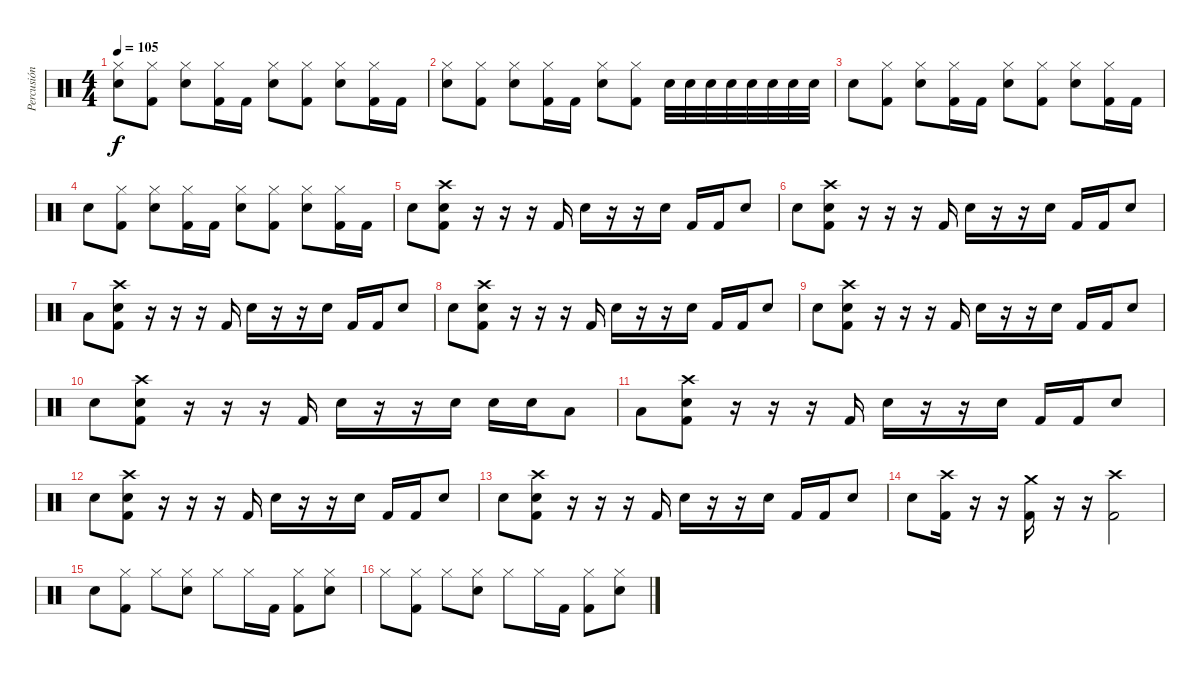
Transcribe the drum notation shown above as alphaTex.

\track ("Percusión" "Percusión") {instrument percussion}
\staff {score}
\articulation defaults
\ts (4 4)
\tempo 105
\clef neutral
\ks c
("Hi-Hat (closed)" "Electric Snare (hit)").8{dy f} ("Hi-Hat (closed)" "Kick (hit) 2").8 ("Hi-Hat (closed)" "Electric Snare (hit)").8 ("Hi-Hat (closed)" "Kick (hit) 2").16 "Kick (hit) 2".16 ("Hi-Hat (closed)" "Electric Snare (hit)").8 ("Hi-Hat (closed)" "Kick (hit) 2").8 ("Hi-Hat (closed)" "Electric Snare (hit)").8 ("Hi-Hat (closed)" "Kick (hit) 2").16 "Kick (hit) 2".16 |
("Hi-Hat (closed)" "Electric Snare (hit)").8 ("Hi-Hat (closed)" "Kick (hit) 2").8 ("Hi-Hat (closed)" "Electric Snare (hit)").8 ("Hi-Hat (closed)" "Kick (hit) 2").16 "Kick (hit) 2".16 ("Hi-Hat (closed)" "Electric Snare (hit)").8 ("Hi-Hat (closed)" "Kick (hit) 2").8 "Electric Snare (hit)".32 "Electric Snare (hit)".32 "Electric Snare (hit)".32 "Electric Snare (hit)".32 "Electric Snare (hit)".32 "Electric Snare (hit)".32 "Electric Snare (hit)".32 "Electric Snare (hit)".32 |
"Electric Snare (hit)".8 ("Hi-Hat (closed)" "Kick (hit) 2").8 ("Hi-Hat (closed)" "Electric Snare (hit)").8 ("Hi-Hat (closed)" "Kick (hit) 2").16 "Kick (hit) 2".16 ("Hi-Hat (closed)" "Electric Snare (hit)").8 ("Hi-Hat (closed)" "Kick (hit) 2").8 ("Hi-Hat (closed)" "Electric Snare (hit)").8 ("Hi-Hat (closed)" "Kick (hit) 2").16 "Kick (hit) 2".16 |
"Electric Snare (hit)".8 ("Hi-Hat (closed)" "Kick (hit) 2").8 ("Hi-Hat (closed)" "Electric Snare (hit)").8 ("Hi-Hat (closed)" "Kick (hit) 2").16 "Kick (hit) 2".16 ("Hi-Hat (closed)" "Electric Snare (hit)").8 ("Hi-Hat (closed)" "Kick (hit) 2").8 ("Hi-Hat (closed)" "Electric Snare (hit)").8 ("Hi-Hat (closed)" "Kick (hit) 2").16 "Kick (hit) 2".16 |
"Electric Snare (hit)".8 ("Crash high (hit)" "Electric Snare (hit)" "Kick (hit) 2").8 r.16 r.16 r.16 "Kick (hit) 2".16 "Electric Snare (hit)".16 r.16 r.16 "Electric Snare (hit)".16 "Kick (hit) 2".16 "Kick (hit) 2".16 "Electric Snare (hit)".8 |
"Electric Snare (hit)".8 ("Crash high (hit)" "Electric Snare (hit)" "Kick (hit) 2").8 r.16 r.16 r.16 "Kick (hit) 2".16 "Electric Snare (hit)".16 r.16 r.16 "Electric Snare (hit)".16 "Kick (hit) 2".16 "Kick (hit) 2".16 "Electric Snare (hit)".8 |
"Low Tom (hit)".8 ("Crash high (hit)" "Electric Snare (hit)" "Kick (hit) 2").8 r.16 r.16 r.16 "Kick (hit) 2".16 "Electric Snare (hit)".16 r.16 r.16 "Electric Snare (hit)".16 "Kick (hit) 2".16 "Kick (hit) 2".16 "Electric Snare (hit)".8 |
"Electric Snare (hit)".8 ("Crash high (hit)" "Electric Snare (hit)" "Kick (hit) 2").8 r.16 r.16 r.16 "Kick (hit) 2".16 "Electric Snare (hit)".16 r.16 r.16 "Electric Snare (hit)".16 "Kick (hit) 2".16 "Kick (hit) 2".16 "Electric Snare (hit)".8 |
"Electric Snare (hit)".8 ("Crash high (hit)" "Electric Snare (hit)" "Kick (hit) 2").8 r.16 r.16 r.16 "Kick (hit) 2".16 "Electric Snare (hit)".16 r.16 r.16 "Electric Snare (hit)".16 "Kick (hit) 2".16 "Kick (hit) 2".16 "Electric Snare (hit)".8 |
"Electric Snare (hit)".8 ("Crash high (hit)" "Electric Snare (hit)" "Kick (hit) 2").8 r.16 r.16 r.16 "Kick (hit) 2".16 "Electric Snare (hit)".16 r.16 r.16 "Electric Snare (hit)".16 "Electric Snare (hit)".16 "Electric Snare (hit)".16 "Low Tom (hit)".8 |
"Low Tom (hit)".8 ("Crash high (hit)" "Electric Snare (hit)" "Kick (hit) 2").8 r.16 r.16 r.16 "Kick (hit) 2".16 "Electric Snare (hit)".16 r.16 r.16 "Electric Snare (hit)".16 "Kick (hit) 2".16 "Kick (hit) 2".16 "Electric Snare (hit)".8 |
"Electric Snare (hit)".8 ("Crash high (hit)" "Electric Snare (hit)" "Kick (hit) 2").8 r.16 r.16 r.16 "Kick (hit) 2".16 "Electric Snare (hit)".16 r.16 r.16 "Electric Snare (hit)".16 "Kick (hit) 2".16 "Kick (hit) 2".16 "Electric Snare (hit)".8 |
"Electric Snare (hit)".8 ("Crash high (hit)" "Electric Snare (hit)" "Kick (hit) 2").8 r.16 r.16 r.16 "Kick (hit) 2".16 "Electric Snare (hit)".16 r.16 r.16 "Electric Snare (hit)".16 "Kick (hit) 2".16 "Kick (hit) 2".16 "Electric Snare (hit)".8 |
"Electric Snare (hit)".8 ("Crash high (hit)" "Kick (hit) 2").16 r.16 r.16 ("Crash medium (hit)" "Kick (hit) 2").16 r.16 r.16 ("Crash high (hit)" "Kick (hit) 2").2 |
"Electric Snare (hit)".8 ("Hi-Hat (closed)" "Kick (hit) 2").8 "Hi-Hat (closed)".8 ("Hi-Hat (closed)" "Electric Snare (hit)").8 "Hi-Hat (closed)".8 "Hi-Hat (closed)".16 "Kick (hit) 2".16 ("Hi-Hat (closed)" "Kick (hit) 2").8 ("Hi-Hat (closed)" "Electric Snare (hit)").8 |
"Hi-Hat (closed)".8 ("Hi-Hat (closed)" "Kick (hit) 2").8 "Hi-Hat (closed)".8 ("Hi-Hat (closed)" "Electric Snare (hit)").8 "Hi-Hat (closed)".8 "Hi-Hat (closed)".16 "Kick (hit) 2".16 ("Hi-Hat (closed)" "Kick (hit) 2").8 ("Hi-Hat (closed)" "Electric Snare (hit)").8
